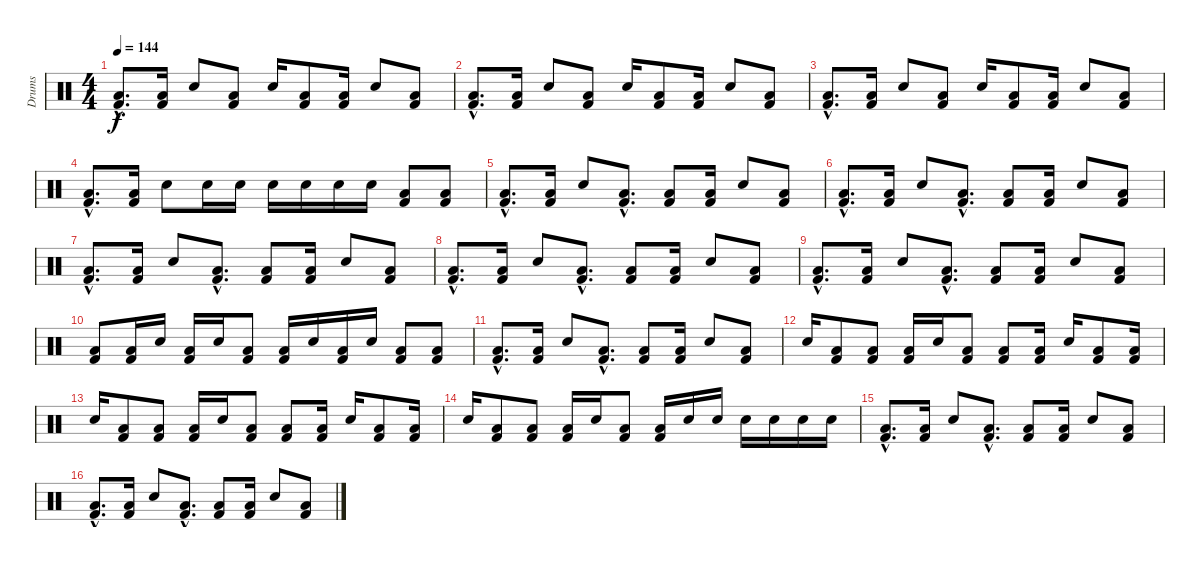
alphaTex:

\track ("Drums" "Drums") {instrument percussion}
\staff {score}
\articulation defaults
\ts (4 4)
\tempo 144
\clef neutral
\ks c
("Low Floor Tom (hit)"{hac} "Kick (hit) 2"{hac}).8{d dy f} ("Low Floor Tom (hit)" "Kick (hit) 2").16 "Snare (hit) 2".8 ("Low Floor Tom (hit)" "Kick (hit) 2").8 "Snare (hit) 2".16 ("Low Floor Tom (hit)" "Kick (hit) 2").8 ("Low Floor Tom (hit)" "Kick (hit) 2").16 "Snare (hit) 2".8 ("Low Floor Tom (hit)" "Kick (hit) 2").8 |
("Low Floor Tom (hit)"{hac} "Kick (hit) 2"{hac}).8{d} ("Low Floor Tom (hit)" "Kick (hit) 2").16 "Snare (hit) 2".8 ("Low Floor Tom (hit)" "Kick (hit) 2").8 "Snare (hit) 2".16 ("Low Floor Tom (hit)" "Kick (hit) 2").8 ("Low Floor Tom (hit)" "Kick (hit) 2").16 "Snare (hit) 2".8 ("Low Floor Tom (hit)" "Kick (hit) 2").8 |
("Low Floor Tom (hit)"{hac} "Kick (hit) 2"{hac}).8{d} ("Low Floor Tom (hit)" "Kick (hit) 2").16 "Snare (hit) 2".8 ("Low Floor Tom (hit)" "Kick (hit) 2").8 "Snare (hit) 2".16 ("Low Floor Tom (hit)" "Kick (hit) 2").8 ("Low Floor Tom (hit)" "Kick (hit) 2").16 "Snare (hit) 2".8 ("Low Floor Tom (hit)" "Kick (hit) 2").8 |
("Low Floor Tom (hit)"{hac} "Kick (hit) 2"{hac}).8{d} ("Low Floor Tom (hit)" "Kick (hit) 2").16 "Snare (hit) 2".8 "Snare (hit) 2".16 "Snare (hit) 2".16 "Snare (hit) 2".16 "Snare (hit) 2".16 "Snare (hit) 2".16 "Snare (hit) 2".16 ("Low Floor Tom (hit)" "Kick (hit) 2").8 ("Low Floor Tom (hit)" "Kick (hit) 2").8 |
("Low Floor Tom (hit)"{hac} "Kick (hit) 2"{hac}).8{d} ("Low Floor Tom (hit)" "Kick (hit) 2").16 "Snare (hit) 2".8 ("Low Floor Tom (hit)"{hac} "Kick (hit) 2"{hac}).8{d} ("Low Floor Tom (hit)" "Kick (hit) 2").8 ("Low Floor Tom (hit)" "Kick (hit) 2").16 "Snare (hit) 2".8 ("Low Floor Tom (hit)" "Kick (hit) 2").8 |
("Low Floor Tom (hit)"{hac} "Kick (hit) 2"{hac}).8{d} ("Low Floor Tom (hit)" "Kick (hit) 2").16 "Snare (hit) 2".8 ("Low Floor Tom (hit)"{hac} "Kick (hit) 2"{hac}).8{d} ("Low Floor Tom (hit)" "Kick (hit) 2").8 ("Low Floor Tom (hit)" "Kick (hit) 2").16 "Snare (hit) 2".8 ("Low Floor Tom (hit)" "Kick (hit) 2").8 |
("Low Floor Tom (hit)"{hac} "Kick (hit) 2"{hac}).8{d} ("Low Floor Tom (hit)" "Kick (hit) 2").16 "Snare (hit) 2".8 ("Low Floor Tom (hit)"{hac} "Kick (hit) 2"{hac}).8{d} ("Low Floor Tom (hit)" "Kick (hit) 2").8 ("Low Floor Tom (hit)" "Kick (hit) 2").16 "Snare (hit) 2".8 ("Low Floor Tom (hit)" "Kick (hit) 2").8 |
("Low Floor Tom (hit)"{hac} "Kick (hit) 2"{hac}).8{d} ("Low Floor Tom (hit)" "Kick (hit) 2").16 "Snare (hit) 2".8 ("Low Floor Tom (hit)"{hac} "Kick (hit) 2"{hac}).8{d} ("Low Floor Tom (hit)" "Kick (hit) 2").8 ("Low Floor Tom (hit)" "Kick (hit) 2").16 "Snare (hit) 2".8 ("Low Floor Tom (hit)" "Kick (hit) 2").8 |
("Low Floor Tom (hit)"{hac} "Kick (hit) 2"{hac}).8{d} ("Low Floor Tom (hit)" "Kick (hit) 2").16 "Snare (hit) 2".8 ("Low Floor Tom (hit)"{hac} "Kick (hit) 2"{hac}).8{d} ("Low Floor Tom (hit)" "Kick (hit) 2").8 ("Low Floor Tom (hit)" "Kick (hit) 2").16 "Snare (hit) 2".8 ("Low Floor Tom (hit)" "Kick (hit) 2").8 |
("Low Floor Tom (hit)" "Kick (hit) 2").8 ("Low Floor Tom (hit)" "Kick (hit) 2").16 "Snare (hit) 2".16 ("Low Floor Tom (hit)" "Kick (hit) 2").16 "Snare (hit) 2".16 ("Low Floor Tom (hit)" "Kick (hit) 2").8 ("Low Floor Tom (hit)" "Kick (hit) 2").16 "Snare (hit) 2".16 ("Low Floor Tom (hit)" "Kick (hit) 2").16 "Snare (hit) 2".16 ("Low Floor Tom (hit)" "Kick (hit) 2").8 ("Low Floor Tom (hit)" "Kick (hit) 2").8 |
("Low Floor Tom (hit)"{hac} "Kick (hit) 2"{hac}).8{d} ("Low Floor Tom (hit)" "Kick (hit) 2").16 "Snare (hit) 2".8 ("Low Floor Tom (hit)"{hac} "Kick (hit) 2"{hac}).8{d} ("Low Floor Tom (hit)" "Kick (hit) 2").8 ("Low Floor Tom (hit)" "Kick (hit) 2").16 "Snare (hit) 2".8 ("Low Floor Tom (hit)" "Kick (hit) 2").8 |
"Snare (hit) 2".16 ("Low Floor Tom (hit)" "Kick (hit) 2").8 ("Low Floor Tom (hit)" "Kick (hit) 2").8 ("Low Floor Tom (hit)" "Kick (hit) 2").16 "Snare (hit) 2".16 ("Low Floor Tom (hit)" "Kick (hit) 2").8 ("Low Floor Tom (hit)" "Kick (hit) 2").8 ("Low Floor Tom (hit)" "Kick (hit) 2").16 "Snare (hit) 2".16 ("Low Floor Tom (hit)" "Kick (hit) 2").8 ("Low Floor Tom (hit)" "Kick (hit) 2").16 |
"Snare (hit) 2".16 ("Low Floor Tom (hit)" "Kick (hit) 2").8 ("Low Floor Tom (hit)" "Kick (hit) 2").8 ("Low Floor Tom (hit)" "Kick (hit) 2").16 "Snare (hit) 2".16 ("Low Floor Tom (hit)" "Kick (hit) 2").8 ("Low Floor Tom (hit)" "Kick (hit) 2").8 ("Low Floor Tom (hit)" "Kick (hit) 2").16 "Snare (hit) 2".16 ("Low Floor Tom (hit)" "Kick (hit) 2").8 ("Low Floor Tom (hit)" "Kick (hit) 2").16 |
"Snare (hit) 2".16 ("Low Floor Tom (hit)" "Kick (hit) 2").8 ("Low Floor Tom (hit)" "Kick (hit) 2").8 ("Low Floor Tom (hit)" "Kick (hit) 2").16 "Snare (hit) 2".16 ("Low Floor Tom (hit)" "Kick (hit) 2").8 ("Low Floor Tom (hit)" "Kick (hit) 2").16 "Snare (hit) 2".16 "Snare (hit) 2".16 "Snare (hit) 2".16 "Snare (hit) 2".16 "Snare (hit) 2".16 "Snare (hit) 2".16 |
("Low Floor Tom (hit)"{hac} "Kick (hit) 2"{hac}).8{d} ("Low Floor Tom (hit)" "Kick (hit) 2").16 "Snare (hit) 2".8 ("Low Floor Tom (hit)"{hac} "Kick (hit) 2"{hac}).8{d} ("Low Floor Tom (hit)" "Kick (hit) 2").8 ("Low Floor Tom (hit)" "Kick (hit) 2").16 "Snare (hit) 2".8 ("Low Floor Tom (hit)" "Kick (hit) 2").8 |
("Low Floor Tom (hit)"{hac} "Kick (hit) 2"{hac}).8{d} ("Low Floor Tom (hit)" "Kick (hit) 2").16 "Snare (hit) 2".8 ("Low Floor Tom (hit)"{hac} "Kick (hit) 2"{hac}).8{d} ("Low Floor Tom (hit)" "Kick (hit) 2").8 ("Low Floor Tom (hit)" "Kick (hit) 2").16 "Snare (hit) 2".8 ("Low Floor Tom (hit)" "Kick (hit) 2").8
